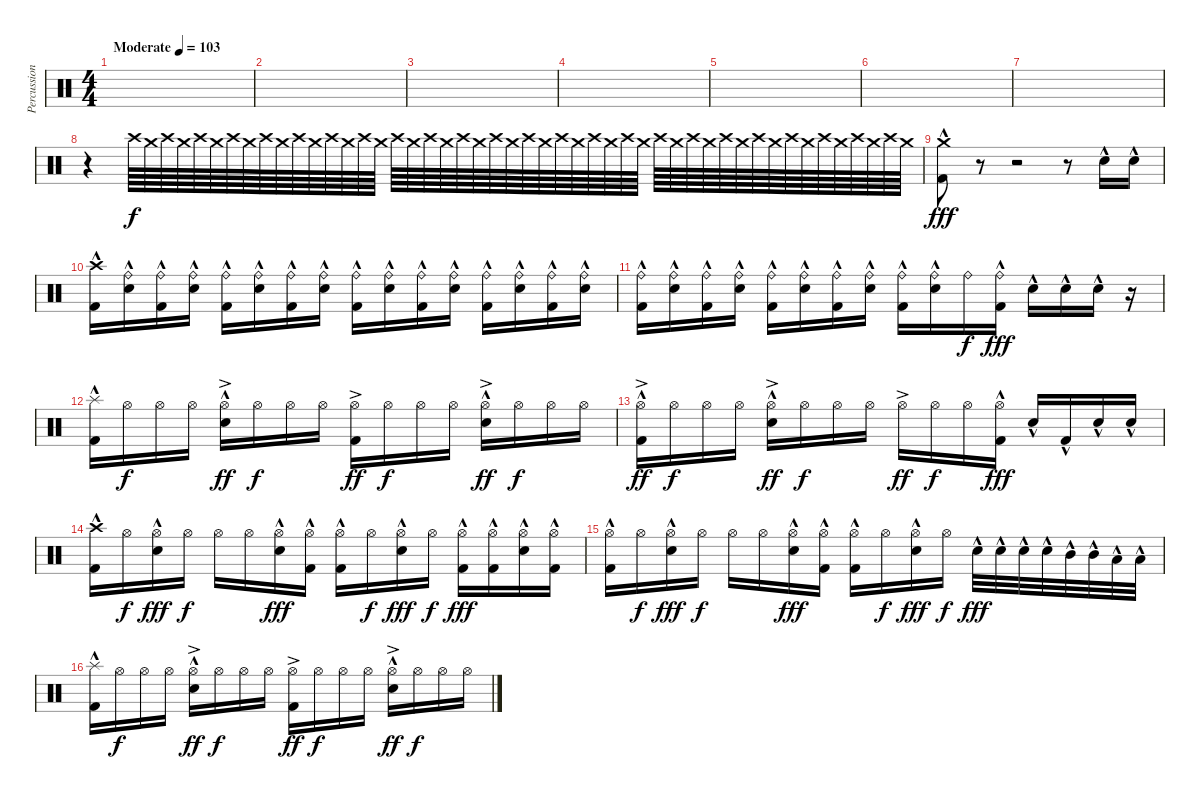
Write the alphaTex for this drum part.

\track ("Percussion" "Percussion") {instrument percussion}
\staff {score}
\articulation defaults
\ts (4 4)
\tempo (103 "Moderate")
\clef neutral
\ks c
|
|
|
|
|
|
|
r.4{volume 0} "Crash high (hit)".64{volume 8} "Crash medium (hit)".64 "Crash high (hit)".64 "Crash medium (hit)".64 "Crash high (hit)".64 "Crash medium (hit)".64 "Crash high (hit)".64 "Crash medium (hit)".64 "Crash high (hit)".64 "Crash medium (hit)".64 "Crash high (hit)".64 "Crash medium (hit)".64 "Crash high (hit)".64 "Crash medium (hit)".64 "Crash high (hit)".64 "Crash medium (hit)".64 "Crash high (hit)".64 "Crash medium (hit)".64 "Crash high (hit)".64 "Crash medium (hit)".64 "Crash high (hit)".64 "Crash medium (hit)".64 "Crash high (hit)".64 "Crash medium (hit)".64 "Crash high (hit)".64 "Crash medium (hit)".64 "Crash high (hit)".64 "Crash medium (hit)".64 "Crash high (hit)".64 "Crash medium (hit)".64 "Crash high (hit)".64 "Crash medium (hit)".64 "Crash high (hit)".64 "Crash medium (hit)".64 "Crash high (hit)".64 "Crash medium (hit)".64 "Crash high (hit)".64 "Crash medium (hit)".64 "Crash high (hit)".64 "Crash medium (hit)".64 "Crash high (hit)".64 "Crash medium (hit)".64 "Crash high (hit)".64 "Crash medium (hit)".64 "Crash high (hit)".64 "Crash medium (hit)".64 "Crash high (hit)".64 "Crash medium (hit)".64 |
("Kick (hit) 2"{hac} "Crash medium (hit)").8{dy fff} r.8{volume 0} r.2 r.8{volume 8} "Electric Snare (hit)"{hac}.16 "Electric Snare (hit)"{hac}.16 |
("Kick (hit) 2"{hac} "Crash high (hit)").16 ("Electric Snare (hit)"{hac} "Ride (bell)").16 ("Kick (hit) 2"{hac} "Ride (bell)").16 ("Electric Snare (hit)"{hac} "Ride (bell)").16 ("Kick (hit) 2"{hac} "Ride (bell)").16 ("Electric Snare (hit)"{hac} "Ride (bell)").16 ("Kick (hit) 2"{hac} "Ride (bell)").16 ("Electric Snare (hit)"{hac} "Ride (bell)").16 ("Kick (hit) 2"{hac} "Ride (bell)").16 ("Electric Snare (hit)"{hac} "Ride (bell)").16 ("Kick (hit) 2"{hac} "Ride (bell)").16 ("Electric Snare (hit)"{hac} "Ride (bell)").16 ("Kick (hit) 2"{hac} "Ride (bell)").16 ("Electric Snare (hit)"{hac} "Ride (bell)").16 ("Kick (hit) 2"{hac} "Ride (bell)").16 ("Electric Snare (hit)"{hac} "Ride (bell)").16 |
("Kick (hit) 2"{hac} "Ride (bell)").16 ("Electric Snare (hit)"{hac} "Ride (bell)").16 ("Kick (hit) 2"{hac} "Ride (bell)").16 ("Electric Snare (hit)"{hac} "Ride (bell)").16 ("Kick (hit) 2"{hac} "Ride (bell)").16 ("Electric Snare (hit)"{hac} "Ride (bell)").16 ("Kick (hit) 2"{hac} "Ride (bell)").16 ("Electric Snare (hit)"{hac} "Ride (bell)").16 ("Kick (hit) 2"{hac} "Ride (bell)").16 ("Electric Snare (hit)"{hac} "Ride (bell)").16 "Ride (bell)".16{dy f} ("Kick (hit) 2"{hac} "Ride (bell)").16{dy fff} "Electric Snare (hit)"{hac}.16 "Electric Snare (hit)"{hac}.16 "Electric Snare (hit)"{hac}.16 r.16 |
("Kick (hit) 2"{hac} "Splash (hit)").16 "Hi-Hat (open)".16{dy f} "Hi-Hat (open)".16 "Hi-Hat (open)".16 ("Electric Snare (hit)"{hac} "Hi-Hat (open)"{ac}).16{dy ff} "Hi-Hat (open)".16{dy f} "Hi-Hat (open)".16 "Hi-Hat (open)".16 ("Kick (hit) 2" "Hi-Hat (open)"{ac}).16{dy ff} "Hi-Hat (open)".16{dy f} "Hi-Hat (open)".16 "Hi-Hat (open)".16 ("Electric Snare (hit)"{hac} "Hi-Hat (open)"{ac}).16{dy ff} "Hi-Hat (open)".16{dy f} "Hi-Hat (open)".16 "Hi-Hat (open)".16 |
("Kick (hit) 2"{hac} "Hi-Hat (open)"{ac}).16{dy ff} "Hi-Hat (open)".16{dy f} "Hi-Hat (open)".16 "Hi-Hat (open)".16 ("Electric Snare (hit)"{hac} "Hi-Hat (open)"{ac}).16{dy ff} "Hi-Hat (open)".16{dy f} "Hi-Hat (open)".16 "Hi-Hat (open)".16 "Hi-Hat (open)"{ac}.16{dy ff} "Hi-Hat (open)".16{dy f} "Hi-Hat (open)".16 ("Kick (hit) 2"{hac} "Hi-Hat (open)").16{dy fff} "Electric Snare (hit)"{hac}.16 "Kick (hit) 2"{hac}.16 "Electric Snare (hit)"{hac}.16 "Electric Snare (hit)"{hac}.16 |
("Kick (hit) 2"{hac} "Crash high (hit)").16 "Hi-Hat (open)".16{dy f} ("Electric Snare (hit)"{hac} "Hi-Hat (open)").16{dy fff} "Hi-Hat (open)".16{dy f} "Hi-Hat (open)".16 "Hi-Hat (open)".16 ("Electric Snare (hit)"{hac} "Hi-Hat (open)").16{dy fff} ("Kick (hit) 2"{hac} "Hi-Hat (open)").16 ("Kick (hit) 2"{hac} "Hi-Hat (open)").16 "Hi-Hat (open)".16{dy f} ("Electric Snare (hit)"{hac} "Hi-Hat (open)").16{dy fff} "Hi-Hat (open)".16{dy f} ("Kick (hit) 2"{hac} "Hi-Hat (open)").16{dy fff} ("Kick (hit) 2"{hac} "Hi-Hat (open)").16 ("Electric Snare (hit)"{hac} "Hi-Hat (open)").16 ("Kick (hit) 2"{hac} "Hi-Hat (open)").16 |
("Kick (hit) 2"{hac} "Hi-Hat (open)").16 "Hi-Hat (open)".16{dy f} ("Electric Snare (hit)"{hac} "Hi-Hat (open)").16{dy fff} "Hi-Hat (open)".16{dy f} "Hi-Hat (open)".16 "Hi-Hat (open)".16 ("Electric Snare (hit)"{hac} "Hi-Hat (open)").16{dy fff} ("Kick (hit) 2"{hac} "Hi-Hat (open)").16 ("Kick (hit) 2"{hac} "Hi-Hat (open)").16 "Hi-Hat (open)".16{dy f} ("Electric Snare (hit)"{hac} "Hi-Hat (open)").16{dy fff} "Hi-Hat (open)".16{dy f} "Electric Snare (hit)"{hac}.32{dy fff} "Electric Snare (hit)"{hac}.32 "Electric Snare (hit)"{hac}.32 "Electric Snare (hit)"{hac}.32 "Mid Tom (hit)"{hac}.32 "Mid Tom (hit)"{hac}.32 "Low Tom (hit)"{hac}.32 "Low Tom (hit)"{hac}.32 |
("Kick (hit) 2"{hac} "Splash (hit)").16 "Hi-Hat (open)".16{dy f} "Hi-Hat (open)".16 "Hi-Hat (open)".16 ("Electric Snare (hit)"{hac} "Hi-Hat (open)"{ac}).16{dy ff} "Hi-Hat (open)".16{dy f} "Hi-Hat (open)".16 "Hi-Hat (open)".16 ("Kick (hit) 2" "Hi-Hat (open)"{ac}).16{dy ff} "Hi-Hat (open)".16{dy f} "Hi-Hat (open)".16 "Hi-Hat (open)".16 ("Electric Snare (hit)"{hac} "Hi-Hat (open)"{ac}).16{dy ff} "Hi-Hat (open)".16{dy f} "Hi-Hat (open)".16 "Hi-Hat (open)".16
